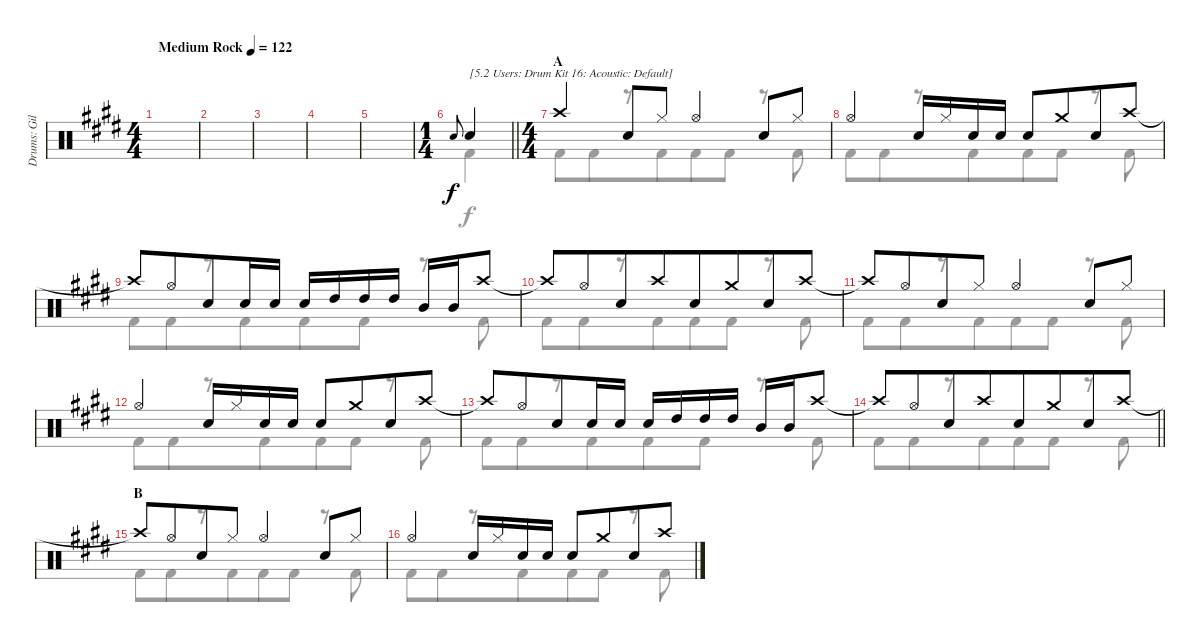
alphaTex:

\track ("Drums: Gil" "Drums: Gil") {instrument percussion}
\staff {score}
\articulation defaults
\voice
\ts (4 4)
\tempo (122 "Medium Rock")
\clef neutral
\ks e
|
|
|
|
|
\ts (1 4)
\barLineRight lightlight "Electric Snare (hit)".8{gr onbeat} "Snare (hit) 2".4{txt "[5.2 Users: Drum Kit 16: Acoustic: Default]"}
|
\ts (4 4)
\section ("" "A")
"Crash high (hit)".4{beam merge} "Snare (hit) 2".8 "Hi-Hat (closed)".8 "Hi-Hat (open)".4 "Snare (hit) 2".8 "Hi-Hat (closed)".8 |
"Hi-Hat (open)".4{beam merge} "Snare (hit) 2".16 "Hi-Hat (closed)".16 "Snare (hit) 2".16 "Snare (hit) 2".16 "Snare (hit) 2".8 "Crash medium (hit)".8{beam merge} "Electric Snare (hit)".8 "Crash high (hit)".8 |
"Crash high (hit)"{t}.8 "Hi-Hat (open)".8{beam merge} "Snare (hit) 2".8 "Snare (hit) 2".16 "Snare (hit) 2".16 "Snare (hit) 2".16 "High Tom (hit)".16 "High Tom (hit)".16 "High Tom (hit)".16 "Mid Tom (hit)".16 "Mid Tom (hit)".16 "Crash high (hit)".8 |
"Crash high (hit)"{t}.8 "Hi-Hat (open)".8{beam merge} "Snare (hit) 2".8 "Crash high (hit)".8{beam merge} "Snare (hit) 2".8 "Crash medium (hit)".8{beam merge} "Snare (hit) 2".8 "Crash high (hit)".8 |
"Crash high (hit)"{t}.8 "Hi-Hat (open)".8{beam merge} "Snare (hit) 2".8 "Hi-Hat (closed)".8 "Hi-Hat (open)".4 "Snare (hit) 2".8 "Hi-Hat (closed)".8 |
"Hi-Hat (open)".4{beam merge} "Snare (hit) 2".16 "Hi-Hat (closed)".16 "Snare (hit) 2".16 "Snare (hit) 2".16 "Snare (hit) 2".8 "Crash medium (hit)".8{beam merge} "Electric Snare (hit)".8 "Crash high (hit)".8 |
"Crash high (hit)"{t}.8 "Hi-Hat (open)".8{beam merge} "Snare (hit) 2".8 "Snare (hit) 2".16 "Snare (hit) 2".16 "Snare (hit) 2".16 "High Tom (hit)".16 "High Tom (hit)".16 "High Tom (hit)".16 "Mid Tom (hit)".16 "Mid Tom (hit)".16 "Crash high (hit)".8 |
\barLineRight lightlight "Crash high (hit)"{t}.8 "Hi-Hat (open)".8{beam merge} "Snare (hit) 2".8 "Crash high (hit)".8{beam merge} "Snare (hit) 2".8 "Crash medium (hit)".8{beam merge} "Snare (hit) 2".8 "Crash high (hit)".8
|
\section ("" "B")
"Crash high (hit)"{t}.8 "Hi-Hat (open)".8{beam merge} "Snare (hit) 2".8 "Hi-Hat (closed)".8 "Hi-Hat (open)".4 "Snare (hit) 2".8 "Hi-Hat (closed)".8 |
"Hi-Hat (open)".4{beam merge} "Snare (hit) 2".16 "Hi-Hat (closed)".16 "Snare (hit) 2".16 "Snare (hit) 2".16 "Snare (hit) 2".8 "Crash medium (hit)".8{beam merge} "Electric Snare (hit)".8 "Crash high (hit)".8
\voice
\clef neutral
\ottava regular
\simile none
\ks e
|
|
|
|
|
\barLineRight lightlight "Kick (hit) 2".4
|
"Kick (hit) 2".8 "Kick (hit) 2".8{beam merge} r.8{beam merge} "Kick (hit) 2".8{beam merge} "Kick (hit) 2".8 "Kick (hit) 2".8 r.8 "Kick (hit) 2".8 |
"Kick (hit) 2".8 "Kick (hit) 2".8{beam merge} r.8{beam merge} "Kick (hit) 2".8{beam merge} "Kick (hit) 2".8 "Kick (hit) 2".8 r.8 "Kick (hit) 2".8 |
"Kick (hit) 2".8 "Kick (hit) 2".8{beam merge} r.8{beam merge} "Kick (hit) 2".8{beam merge} "Kick (hit) 2".8 "Kick (hit) 2".8 r.8 "Kick (hit) 2".8 |
"Kick (hit) 2".8 "Kick (hit) 2".8{beam merge} r.8{beam merge} "Kick (hit) 2".8{beam merge} "Kick (hit) 2".8 "Kick (hit) 2".8 r.8 "Kick (hit) 2".8 |
"Kick (hit) 2".8 "Kick (hit) 2".8{beam merge} r.8{beam merge} "Kick (hit) 2".8{beam merge} "Kick (hit) 2".8 "Kick (hit) 2".8 r.8 "Kick (hit) 2".8 |
"Kick (hit) 2".8 "Kick (hit) 2".8{beam merge} r.8{beam merge} "Kick (hit) 2".8{beam merge} "Kick (hit) 2".8 "Kick (hit) 2".8 r.8 "Kick (hit) 2".8 |
"Kick (hit) 2".8 "Kick (hit) 2".8{beam merge} r.8{beam merge} "Kick (hit) 2".8{beam merge} "Kick (hit) 2".8 "Kick (hit) 2".8 r.8 "Kick (hit) 2".8 |
\barLineRight lightlight "Kick (hit) 2".8 "Kick (hit) 2".8{beam merge}
r.8{beam merge} "Kick (hit) 2".8{beam merge} "Kick (hit) 2".8 "Kick (hit) 2".8 r.8 "Kick (hit) 2".8 |
"Kick (hit) 2".8 "Kick (hit) 2".8{beam merge} r.8{beam merge} "Kick (hit) 2".8{beam merge} "Kick (hit) 2".8 "Kick (hit) 2".8 r.8 "Kick (hit) 2".8 |
"Kick (hit) 2".8 "Kick (hit) 2".8{beam merge} r.8{beam merge} "Kick (hit) 2".8{beam merge} "Kick (hit) 2".8 "Kick (hit) 2".8 r.8 "Kick (hit) 2".8
